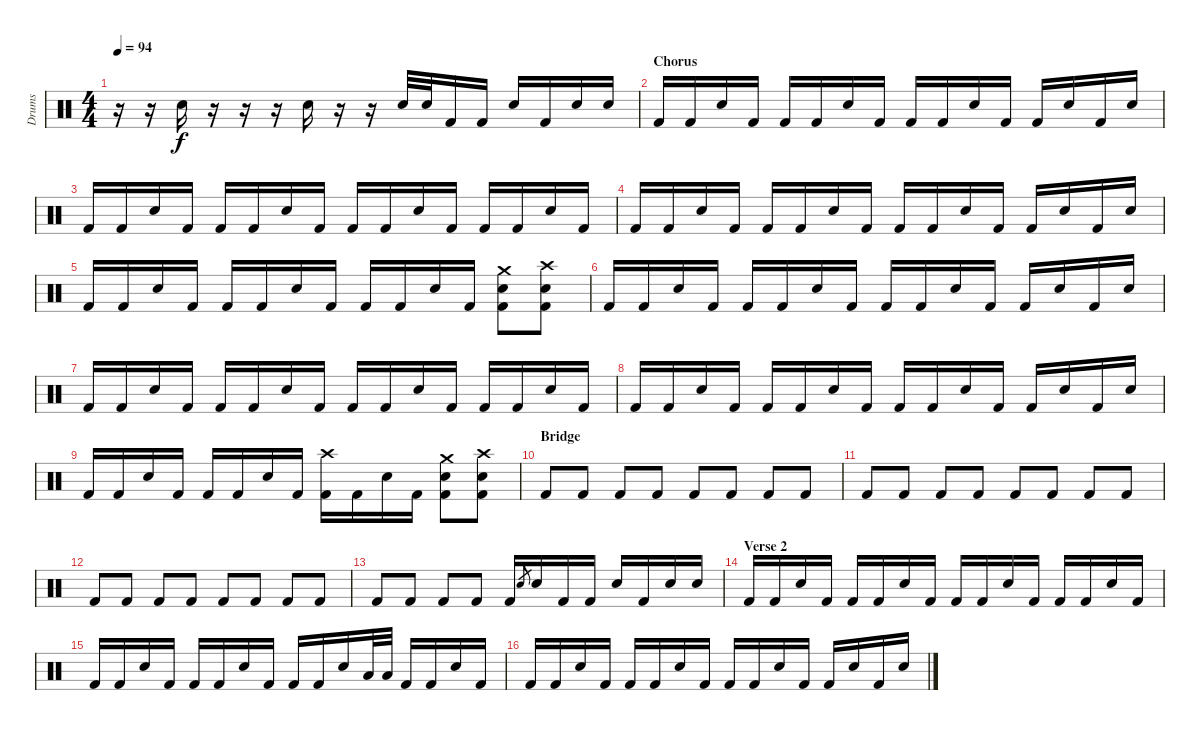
\track ("Drums" "Drums") {instrument percussion}
\staff {score}
\articulation defaults
\ts (4 4)
\tempo 94
\clef neutral
\ks c
r.16{dy f} r.16 "Snare (hit) 2".16 r.16 r.16 r.16 "Snare (hit) 2".16 r.16 r.16 "Snare (hit) 2".32 "Snare (hit) 2".32 "Kick (hit) 2".16 "Kick (hit) 2".16 "Snare (hit) 2".16 "Kick (hit) 2".16 "Snare (hit) 2".16 "Snare (hit) 2".16 |
\section ("" "Chorus")
"Kick (hit) 2".16 "Kick (hit) 2".16 "Snare (hit) 2".16 "Kick (hit) 2".16 "Kick (hit) 2".16 "Kick (hit) 2".16 "Snare (hit) 2".16 "Kick (hit) 2".16 "Kick (hit) 2".16 "Kick (hit) 2".16 "Snare (hit) 2".16 "Kick (hit) 2".16 "Kick (hit) 2".16 "Snare (hit) 2".16 "Kick (hit) 2".16 "Snare (hit) 2".16 |
"Kick (hit) 2".16 "Kick (hit) 2".16 "Snare (hit) 2".16 "Kick (hit) 2".16 "Kick (hit) 2".16 "Kick (hit) 2".16 "Snare (hit) 2".16 "Kick (hit) 2".16 "Kick (hit) 2".16 "Kick (hit) 2".16 "Snare (hit) 2".16 "Kick (hit) 2".16 "Kick (hit) 2".16 "Kick (hit) 2".16 "Snare (hit) 2".16 "Kick (hit) 2".16 |
"Kick (hit) 2".16 "Kick (hit) 2".16 "Snare (hit) 2".16 "Kick (hit) 2".16 "Kick (hit) 2".16 "Kick (hit) 2".16 "Snare (hit) 2".16 "Kick (hit) 2".16 "Kick (hit) 2".16 "Kick (hit) 2".16 "Snare (hit) 2".16 "Kick (hit) 2".16 "Kick (hit) 2".16 "Snare (hit) 2".16 "Kick (hit) 2".16 "Snare (hit) 2".16 |
"Kick (hit) 2".16 "Kick (hit) 2".16 "Snare (hit) 2".16 "Kick (hit) 2".16 "Kick (hit) 2".16 "Kick (hit) 2".16 "Snare (hit) 2".16 "Kick (hit) 2".16 "Kick (hit) 2".16 "Kick (hit) 2".16 "Snare (hit) 2".16 "Kick (hit) 2".16 ("Crash medium (hit)" "Snare (hit) 2" "Kick (hit) 2").8 ("Crash high (hit)" "Snare (hit) 2" "Kick (hit) 2").8 |
"Kick (hit) 2".16 "Kick (hit) 2".16 "Snare (hit) 2".16 "Kick (hit) 2".16 "Kick (hit) 2".16 "Kick (hit) 2".16 "Snare (hit) 2".16 "Kick (hit) 2".16 "Kick (hit) 2".16 "Kick (hit) 2".16 "Snare (hit) 2".16 "Kick (hit) 2".16 "Kick (hit) 2".16 "Snare (hit) 2".16 "Kick (hit) 2".16 "Snare (hit) 2".16 |
"Kick (hit) 2".16 "Kick (hit) 2".16 "Snare (hit) 2".16 "Kick (hit) 2".16 "Kick (hit) 2".16 "Kick (hit) 2".16 "Snare (hit) 2".16 "Kick (hit) 2".16 "Kick (hit) 2".16 "Kick (hit) 2".16 "Snare (hit) 2".16 "Kick (hit) 2".16 "Kick (hit) 2".16 "Kick (hit) 2".16 "Snare (hit) 2".16 "Kick (hit) 2".16 |
"Kick (hit) 2".16 "Kick (hit) 2".16 "Snare (hit) 2".16 "Kick (hit) 2".16 "Kick (hit) 2".16 "Kick (hit) 2".16 "Snare (hit) 2".16 "Kick (hit) 2".16 "Kick (hit) 2".16 "Kick (hit) 2".16 "Snare (hit) 2".16 "Kick (hit) 2".16 "Kick (hit) 2".16 "Snare (hit) 2".16 "Kick (hit) 2".16 "Snare (hit) 2".16 |
"Kick (hit) 2".16 "Kick (hit) 2".16 "Snare (hit) 2".16 "Kick (hit) 2".16 "Kick (hit) 2".16 "Kick (hit) 2".16 "Snare (hit) 2".16 "Kick (hit) 2".16 ("Crash high (hit)" "Kick (hit) 2").16 "Kick (hit) 2".16 "Snare (hit) 2".16 "Kick (hit) 2".16 ("Crash medium (hit)" "Snare (hit) 2" "Kick (hit) 2").8 ("Crash high (hit)" "Snare (hit) 2" "Kick (hit) 2").8 |
\section ("" "Bridge")
"Kick (hit) 2".8 "Kick (hit) 2".8 "Kick (hit) 2".8 "Kick (hit) 2".8 "Kick (hit) 2".8 "Kick (hit) 2".8 "Kick (hit) 2".8 "Kick (hit) 2".8 |
"Kick (hit) 2".8 "Kick (hit) 2".8 "Kick (hit) 2".8 "Kick (hit) 2".8 "Kick (hit) 2".8 "Kick (hit) 2".8 "Kick (hit) 2".8 "Kick (hit) 2".8 |
"Kick (hit) 2".8 "Kick (hit) 2".8 "Kick (hit) 2".8 "Kick (hit) 2".8 "Kick (hit) 2".8 "Kick (hit) 2".8 "Kick (hit) 2".8 "Kick (hit) 2".8 |
"Kick (hit) 2".8 "Kick (hit) 2".8 "Kick (hit) 2".8 "Kick (hit) 2".8 "Kick (hit) 2".16 "Snare (hit) 2".8{gr} "Snare (hit) 2".16 "Kick (hit) 2".16 "Kick (hit) 2".16 "Snare (hit) 2".16 "Kick (hit) 2".16 "Snare (hit) 2".16 "Snare (hit) 2".16 |
\section ("" "Verse 2 ")
"Kick (hit) 2".16 "Kick (hit) 2".16 "Snare (hit) 2".16 "Kick (hit) 2".16 "Kick (hit) 2".16 "Kick (hit) 2".16 "Snare (hit) 2".16 "Kick (hit) 2".16 "Kick (hit) 2".16 "Kick (hit) 2".16 "Snare (hit) 2".16 "Kick (hit) 2".16 "Kick (hit) 2".16 "Kick (hit) 2".16 "Snare (hit) 2".16 "Kick (hit) 2".16 |
"Kick (hit) 2".16 "Kick (hit) 2".16 "Snare (hit) 2".16 "Kick (hit) 2".16 "Kick (hit) 2".16 "Kick (hit) 2".16 "Snare (hit) 2".16 "Kick (hit) 2".16 "Kick (hit) 2".16 "Kick (hit) 2".16 "Snare (hit) 2".16 "Low Tom (hit)".32 "Low Tom (hit)".32 "Kick (hit) 2".16 "Kick (hit) 2".16 "Snare (hit) 2".16 "Kick (hit) 2".16 |
"Kick (hit) 2".16 "Kick (hit) 2".16 "Snare (hit) 2".16 "Kick (hit) 2".16 "Kick (hit) 2".16 "Kick (hit) 2".16 "Snare (hit) 2".16 "Kick (hit) 2".16 "Kick (hit) 2".16 "Kick (hit) 2".16 "Snare (hit) 2".16 "Kick (hit) 2".16 "Kick (hit) 2".16 "Snare (hit) 2".16 "Kick (hit) 2".16 "Snare (hit) 2".16
